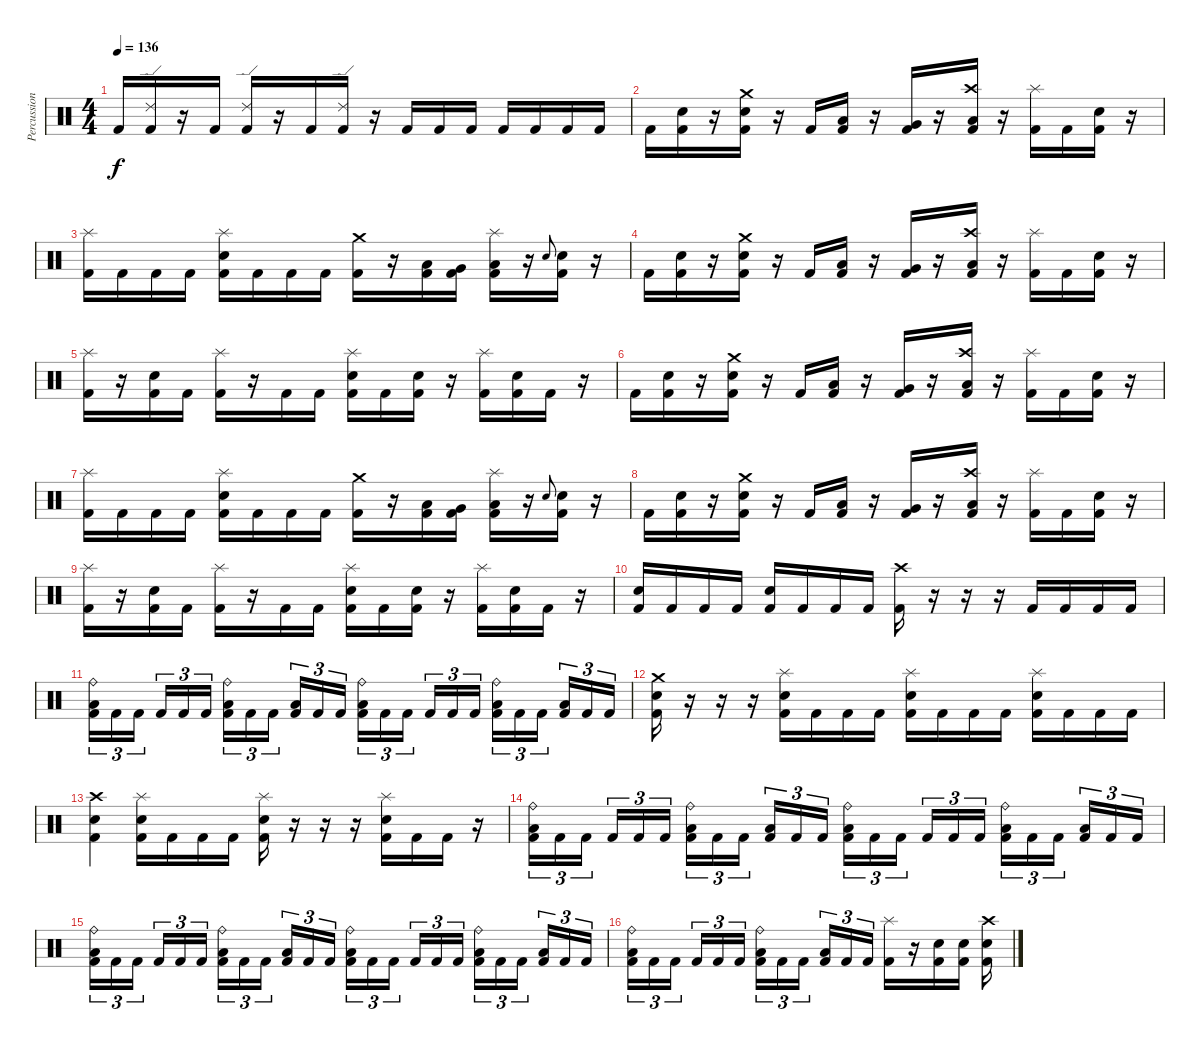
\track ("Percussion" "Percussion") {instrument percussion}
\staff {score}
\articulation defaults
\ts (4 4)
\tempo 136
\clef neutral
\ks c "Kick (hit) 2".16{dy f}
("Ride (edge) 2" "Kick (hit) 2").16 r.16 "Kick (hit) 2".16 ("Ride (edge) 2" "Kick (hit) 2").16 r.16 "Kick (hit) 2".16 ("Ride (edge) 2" "Kick (hit) 2").16 r.16 "Kick (hit) 2".16 "Kick (hit) 2".16 "Kick (hit) 2".16 "Kick (hit) 2".16 "Kick (hit) 2".16 "Kick (hit) 2".16 "Kick (hit) 2".16 |
"Kick (hit) 2".16 ("Electric Snare (hit)" "Kick (hit) 2").16 r.16 ("Crash medium (hit)" "Electric Snare (hit)" "Kick (hit) 2").16 r.16 "Kick (hit) 2".16 ("Low Tom (hit)" "Kick (hit) 2").16 r.16 ("Very Low Tom (hit)" "Kick (hit) 2").16 r.16 ("Crash high (hit)" "Low Floor Tom (hit)" "Kick (hit) 2").16 r.16 ("Splash (hit)" "Kick (hit) 2").16 "Kick (hit) 2".16 ("Electric Snare (hit)" "Kick (hit) 2").16 r.16 |
("Splash (hit)" "Kick (hit) 2").16 "Kick (hit) 2".16 "Kick (hit) 2".16 "Kick (hit) 2".16 ("Splash (hit)" "Electric Snare (hit)" "Kick (hit) 2").16 "Kick (hit) 2".16 "Kick (hit) 2".16 "Kick (hit) 2".16 ("Crash medium (hit)" "Kick (hit) 2").16 r.16 ("Low Tom (hit)" "Kick (hit) 2").16 ("Very Low Tom (hit)" "Kick (hit) 2").16 ("Splash (hit)" "Low Floor Tom (hit)" "Kick (hit) 2").16 r.16 "Electric Snare (hit)".8{gr onbeat} ("Electric Snare (hit)" "Kick (hit) 2").16 r.16 |
"Kick (hit) 2".16 ("Electric Snare (hit)" "Kick (hit) 2").16 r.16 ("Crash medium (hit)" "Electric Snare (hit)" "Kick (hit) 2").16 r.16 "Kick (hit) 2".16 ("Low Tom (hit)" "Kick (hit) 2").16 r.16 ("Very Low Tom (hit)" "Kick (hit) 2").16 r.16 ("Crash high (hit)" "Low Floor Tom (hit)" "Kick (hit) 2").16 r.16 ("Splash (hit)" "Kick (hit) 2").16 "Kick (hit) 2".16 ("Electric Snare (hit)" "Kick (hit) 2").16 r.16 |
("Splash (hit)" "Kick (hit) 2").16 r.16 ("Electric Snare (hit)" "Kick (hit) 2").16 "Kick (hit) 2".16 ("Splash (hit)" "Kick (hit) 2").16 r.16 "Kick (hit) 2".16 "Kick (hit) 2".16 ("Splash (hit)" "Electric Snare (hit)" "Kick (hit) 2").16 "Kick (hit) 2".16 ("Electric Snare (hit)" "Kick (hit) 2").16 r.16 ("Splash (hit)" "Kick (hit) 2").16 ("Electric Snare (hit)" "Kick (hit) 2").16 "Kick (hit) 2".16 r.16 |
"Kick (hit) 2".16 ("Electric Snare (hit)" "Kick (hit) 2").16 r.16 ("Crash medium (hit)" "Electric Snare (hit)" "Kick (hit) 2").16 r.16 "Kick (hit) 2".16 ("Low Tom (hit)" "Kick (hit) 2").16 r.16 ("Very Low Tom (hit)" "Kick (hit) 2").16 r.16 ("Crash high (hit)" "Low Floor Tom (hit)" "Kick (hit) 2").16 r.16 ("Splash (hit)" "Kick (hit) 2").16 "Kick (hit) 2".16 ("Electric Snare (hit)" "Kick (hit) 2").16 r.16 |
("Splash (hit)" "Kick (hit) 2").16 "Kick (hit) 2".16 "Kick (hit) 2".16 "Kick (hit) 2".16 ("Splash (hit)" "Electric Snare (hit)" "Kick (hit) 2").16 "Kick (hit) 2".16 "Kick (hit) 2".16 "Kick (hit) 2".16 ("Crash medium (hit)" "Kick (hit) 2").16 r.16 ("Low Tom (hit)" "Kick (hit) 2").16 ("Very Low Tom (hit)" "Kick (hit) 2").16 ("Splash (hit)" "Low Floor Tom (hit)" "Kick (hit) 2").16 r.16 "Electric Snare (hit)".8{gr onbeat} ("Electric Snare (hit)" "Kick (hit) 2").16 r.16 |
"Kick (hit) 2".16 ("Electric Snare (hit)" "Kick (hit) 2").16 r.16 ("Crash medium (hit)" "Electric Snare (hit)" "Kick (hit) 2").16 r.16 "Kick (hit) 2".16 ("Low Tom (hit)" "Kick (hit) 2").16 r.16 ("Very Low Tom (hit)" "Kick (hit) 2").16 r.16 ("Crash high (hit)" "Low Floor Tom (hit)" "Kick (hit) 2").16 r.16 ("Splash (hit)" "Kick (hit) 2").16 "Kick (hit) 2".16 ("Electric Snare (hit)" "Kick (hit) 2").16 r.16 |
("Splash (hit)" "Kick (hit) 2").16 r.16 ("Electric Snare (hit)" "Kick (hit) 2").16 "Kick (hit) 2".16 ("Splash (hit)" "Kick (hit) 2").16 r.16 "Kick (hit) 2".16 "Kick (hit) 2".16 ("Splash (hit)" "Electric Snare (hit)" "Kick (hit) 2").16 "Kick (hit) 2".16 ("Electric Snare (hit)" "Kick (hit) 2").16 r.16 ("Splash (hit)" "Kick (hit) 2").16 ("Electric Snare (hit)" "Kick (hit) 2").16 "Kick (hit) 2".16 r.16 |
("Electric Snare (hit)" "Kick (hit) 2").16 "Kick (hit) 2".16 "Kick (hit) 2".16 "Kick (hit) 2".16 ("Electric Snare (hit)" "Kick (hit) 2").16 "Kick (hit) 2".16 "Kick (hit) 2".16 "Kick (hit) 2".16 ("Crash high (hit)" "Kick (hit) 2").16 r.16 r.16 r.16 "Kick (hit) 2".16 "Kick (hit) 2".16 "Kick (hit) 2".16 "Kick (hit) 2".16 |
("Ride (bell)" "Low Floor Tom (hit)" "Kick (hit) 2").16{tu (3 2)} "Kick (hit) 2".16{tu (3 2)} "Kick (hit) 2".16{tu (3 2) beam splitsecondary} "Kick (hit) 2".16{tu (3 2)} "Kick (hit) 2".16{tu (3 2)} "Kick (hit) 2".16{tu (3 2)} ("Ride (bell)" "Low Tom (hit)" "Kick (hit) 2").16{tu (3 2)} "Kick (hit) 2".16{tu (3 2)} "Kick (hit) 2".16{tu (3 2) beam splitsecondary} ("Low Tom (hit)" "Kick (hit) 2").16{tu (3 2)} "Kick (hit) 2".16{tu (3 2)} "Kick (hit) 2".16{tu (3 2)} ("Ride (bell)" "Low Floor Tom (hit)" "Kick (hit) 2").16{tu (3 2)} "Kick (hit) 2".16{tu (3 2)} "Kick (hit) 2".16{tu (3 2) beam splitsecondary} "Kick (hit) 2".16{tu (3 2)} "Kick (hit) 2".16{tu (3 2)} "Kick (hit) 2".16{tu (3 2)} ("Ride (bell)" "Low Tom (hit)" "Kick (hit) 2").16{tu (3 2)} "Kick (hit) 2".16{tu (3 2)} "Kick (hit) 2".16{tu (3 2) beam splitsecondary} ("Low Tom (hit)" "Kick (hit) 2").16{tu (3 2)} "Kick (hit) 2".16{tu (3 2)} "Kick (hit) 2".16{tu (3 2)} |
("Crash medium (hit)" "Electric Snare (hit)" "Kick (hit) 2").16 r.16 r.16 r.16 ("Splash (hit)" "Electric Snare (hit)" "Kick (hit) 2").16 "Kick (hit) 2".16 "Kick (hit) 2".16 "Kick (hit) 2".16 ("Splash (hit)" "Electric Snare (hit)" "Kick (hit) 2").16 "Kick (hit) 2".16 "Kick (hit) 2".16 "Kick (hit) 2".16 ("Splash (hit)" "Electric Snare (hit)" "Kick (hit) 2").16 "Kick (hit) 2".16 "Kick (hit) 2".16 "Kick (hit) 2".16 |
("Crash high (hit)" "Electric Snare (hit)" "Kick (hit) 2").4 ("Splash (hit)" "Electric Snare (hit)" "Kick (hit) 2").16 "Kick (hit) 2".16 "Kick (hit) 2".16 "Kick (hit) 2".16 ("Splash (hit)" "Electric Snare (hit)" "Kick (hit) 2").16 r.16 r.16 r.16 ("Splash (hit)" "Electric Snare (hit)" "Kick (hit) 2").16 "Kick (hit) 2".16 "Kick (hit) 2".16 r.16 |
("Ride (bell)" "Low Floor Tom (hit)" "Kick (hit) 2").16{tu (3 2)} "Kick (hit) 2".16{tu (3 2)} "Kick (hit) 2".16{tu (3 2) beam splitsecondary} "Kick (hit) 2".16{tu (3 2)} "Kick (hit) 2".16{tu (3 2)} "Kick (hit) 2".16{tu (3 2)} ("Ride (bell)" "Low Tom (hit)" "Kick (hit) 2").16{tu (3 2)} "Kick (hit) 2".16{tu (3 2)} "Kick (hit) 2".16{tu (3 2) beam splitsecondary} ("Low Tom (hit)" "Kick (hit) 2").16{tu (3 2)} "Kick (hit) 2".16{tu (3 2)} "Kick (hit) 2".16{tu (3 2)} ("Ride (bell)" "Low Floor Tom (hit)" "Kick (hit) 2").16{tu (3 2)} "Kick (hit) 2".16{tu (3 2)} "Kick (hit) 2".16{tu (3 2) beam splitsecondary} "Kick (hit) 2".16{tu (3 2)} "Kick (hit) 2".16{tu (3 2)} "Kick (hit) 2".16{tu (3 2)} ("Ride (bell)" "Low Tom (hit)" "Kick (hit) 2").16{tu (3 2)} "Kick (hit) 2".16{tu (3 2)} "Kick (hit) 2".16{tu (3 2) beam splitsecondary} ("Low Tom (hit)" "Kick (hit) 2").16{tu (3 2)} "Kick (hit) 2".16{tu (3 2)} "Kick (hit) 2".16{tu (3 2)} |
("Ride (bell)" "Low Floor Tom (hit)" "Kick (hit) 2").16{tu (3 2)} "Kick (hit) 2".16{tu (3 2)} "Kick (hit) 2".16{tu (3 2) beam splitsecondary} "Kick (hit) 2".16{tu (3 2)} "Kick (hit) 2".16{tu (3 2)} "Kick (hit) 2".16{tu (3 2)} ("Ride (bell)" "Low Tom (hit)" "Kick (hit) 2").16{tu (3 2)} "Kick (hit) 2".16{tu (3 2)} "Kick (hit) 2".16{tu (3 2) beam splitsecondary} ("Low Tom (hit)" "Kick (hit) 2").16{tu (3 2)} "Kick (hit) 2".16{tu (3 2)} "Kick (hit) 2".16{tu (3 2)} ("Ride (bell)" "Low Floor Tom (hit)" "Kick (hit) 2").16{tu (3 2)} "Kick (hit) 2".16{tu (3 2)} "Kick (hit) 2".16{tu (3 2) beam splitsecondary} "Kick (hit) 2".16{tu (3 2)} "Kick (hit) 2".16{tu (3 2)} "Kick (hit) 2".16{tu (3 2)} ("Ride (bell)" "Low Tom (hit)" "Kick (hit) 2").16{tu (3 2)} "Kick (hit) 2".16{tu (3 2)} "Kick (hit) 2".16{tu (3 2) beam splitsecondary} ("Low Tom (hit)" "Kick (hit) 2").16{tu (3 2)} "Kick (hit) 2".16{tu (3 2)} "Kick (hit) 2".16{tu (3 2)} |
("Ride (bell)" "Low Floor Tom (hit)" "Kick (hit) 2").16{tu (3 2)} "Kick (hit) 2".16{tu (3 2)} "Kick (hit) 2".16{tu (3 2) beam splitsecondary} "Kick (hit) 2".16{tu (3 2)} "Kick (hit) 2".16{tu (3 2)} "Kick (hit) 2".16{tu (3 2)} ("Ride (bell)" "Low Tom (hit)" "Kick (hit) 2").16{tu (3 2)} "Kick (hit) 2".16{tu (3 2)} "Kick (hit) 2".16{tu (3 2) beam splitsecondary} ("Low Tom (hit)" "Kick (hit) 2").16{tu (3 2)} "Kick (hit) 2".16{tu (3 2)} "Kick (hit) 2".16{tu (3 2)} ("Splash (hit)" "Kick (hit) 2").16 r.16 ("Electric Snare (hit)" "Kick (hit) 2").16 ("Electric Snare (hit)" "Kick (hit) 2").16 ("Crash high (hit)" "Electric Snare (hit)" "Kick (hit) 2").16
